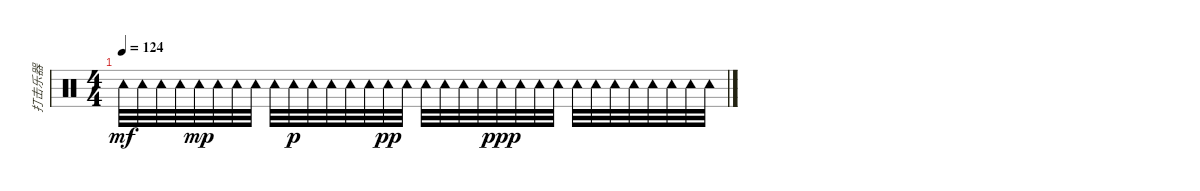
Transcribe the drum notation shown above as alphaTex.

\track ("打击乐器" "打击乐器") {instrument percussion}
\staff {score}
\articulation defaults
\ts (4 4)
\tempo 124
\clef neutral
\ks c "Tambourine (hit)".32{dy mf balance 16} "Tambourine (hit)".32 "Tambourine (hit)".32 "Tambourine (hit)".32 "Tambourine (hit)".32{dy mp} "Tambourine (hit)".32 "Tambourine (hit)".32{balance 4} "Tambourine (hit)".32 "Tambourine (hit)".32 "Tambourine (hit)".32{dy p} "Tambourine (hit)".32 "Tambourine (hit)".32 "Tambourine (hit)".32 "Tambourine (hit)".32 "Tambourine (hit)".32{dy pp} "Tambourine (hit)".32 "Tambourine (hit)".32 "Tambourine (hit)".32 "Tambourine (hit)".32 "Tambourine (hit)".32 "Tambourine (hit)".32{dy ppp} "Tambourine (hit)".32 "Tambourine (hit)".32 "Tambourine (hit)".32 "Tambourine (hit)".32{balance 8} "Tambourine (hit)".32 "Tambourine (hit)".32 "Tambourine (hit)".32 "Tambourine (hit)".32 "Tambourine (hit)".32 "Tambourine (hit)".32 "Tambourine (hit)".32
